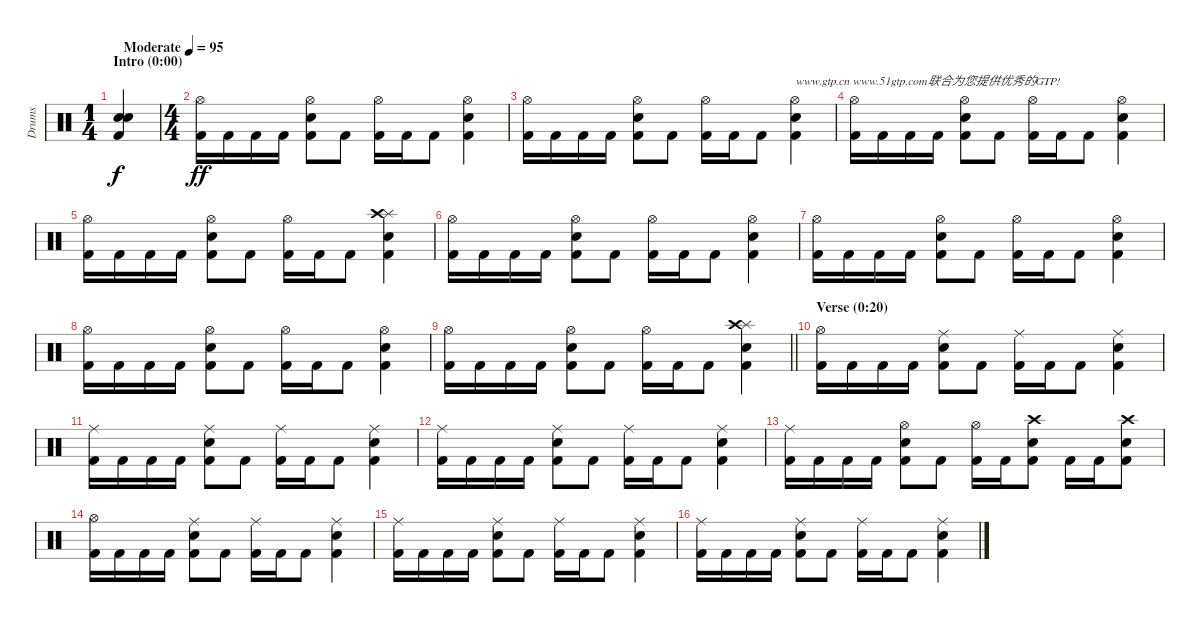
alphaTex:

\track ("Drums" "Drums") {instrument percussion}
\staff {score}
\articulation defaults
\ts (1 4)
\section ("" "Intro (0:00)")
\tempo (95 "Moderate")
\clef neutral
\ks c
("Electric Snare (hit)" "Snare (hit) 2" "Kick (hit) 2").4{dy f} |
\ts (4 4)
("Hi-Hat (open)" "Kick (hit) 2").16{dy ff} "Kick (hit) 2".16 "Kick (hit) 2".16 "Kick (hit) 2".16 ("Hi-Hat (open)" "Snare (hit) 2" "Kick (hit) 2").8 "Kick (hit) 2".8 ("Hi-Hat (open)" "Kick (hit) 2").16 "Kick (hit) 2".16 "Kick (hit) 2".8 ("Hi-Hat (open)" "Snare (hit) 2" "Kick (hit) 2").4 |
("Hi-Hat (open)" "Kick (hit) 2").16 "Kick (hit) 2".16 "Kick (hit) 2".16 "Kick (hit) 2".16 ("Hi-Hat (open)" "Snare (hit) 2" "Kick (hit) 2").8 "Kick (hit) 2".8 ("Hi-Hat (open)" "Kick (hit) 2").16 "Kick (hit) 2".16 "Kick (hit) 2".8 ("Hi-Hat (open)" "Snare (hit) 2" "Kick (hit) 2").4{txt "www.gtp.cn www.51gtp.com联合为您提供优秀的GTP!"} |
("Hi-Hat (open)" "Kick (hit) 2").16 "Kick (hit) 2".16 "Kick (hit) 2".16 "Kick (hit) 2".16 ("Hi-Hat (open)" "Snare (hit) 2" "Kick (hit) 2").8 "Kick (hit) 2".8 ("Hi-Hat (open)" "Kick (hit) 2").16 "Kick (hit) 2".16 "Kick (hit) 2".8 ("Hi-Hat (open)" "Snare (hit) 2" "Kick (hit) 2").4 |
("Hi-Hat (open)" "Kick (hit) 2").16 "Kick (hit) 2".16 "Kick (hit) 2".16 "Kick (hit) 2".16 ("Hi-Hat (open)" "Snare (hit) 2" "Kick (hit) 2").8 "Kick (hit) 2".8 ("Hi-Hat (open)" "Kick (hit) 2").16 "Kick (hit) 2".16 "Kick (hit) 2".8 ("Splash (hit)" "Crash high (hit)" "Snare (hit) 2" "Kick (hit) 2").4 |
("Hi-Hat (open)" "Kick (hit) 2").16 "Kick (hit) 2".16 "Kick (hit) 2".16 "Kick (hit) 2".16 ("Hi-Hat (open)" "Snare (hit) 2" "Kick (hit) 2").8 "Kick (hit) 2".8 ("Hi-Hat (open)" "Kick (hit) 2").16 "Kick (hit) 2".16 "Kick (hit) 2".8 ("Hi-Hat (open)" "Snare (hit) 2" "Kick (hit) 2").4 |
("Hi-Hat (open)" "Kick (hit) 2").16 "Kick (hit) 2".16 "Kick (hit) 2".16 "Kick (hit) 2".16 ("Hi-Hat (open)" "Snare (hit) 2" "Kick (hit) 2").8 "Kick (hit) 2".8 ("Hi-Hat (open)" "Kick (hit) 2").16 "Kick (hit) 2".16 "Kick (hit) 2".8 ("Hi-Hat (open)" "Snare (hit) 2" "Kick (hit) 2").4 |
("Hi-Hat (open)" "Kick (hit) 2").16 "Kick (hit) 2".16 "Kick (hit) 2".16 "Kick (hit) 2".16 ("Hi-Hat (open)" "Snare (hit) 2" "Kick (hit) 2").8 "Kick (hit) 2".8 ("Hi-Hat (open)" "Kick (hit) 2").16 "Kick (hit) 2".16 "Kick (hit) 2".8 ("Hi-Hat (open)" "Snare (hit) 2" "Kick (hit) 2").4 |
\barLineRight lightlight
("Hi-Hat (open)" "Kick (hit) 2").16 "Kick (hit) 2".16 "Kick (hit) 2".16 "Kick (hit) 2".16 ("Hi-Hat (open)" "Snare (hit) 2" "Kick (hit) 2").8 "Kick (hit) 2".8 ("Hi-Hat (open)" "Kick (hit) 2").16 "Kick (hit) 2".16 "Kick (hit) 2".8 ("Splash (hit)" "Crash high (hit)" "Snare (hit) 2" "Kick (hit) 2").4 |
\section ("" "Verse (0:20)")
("Hi-Hat (open)" "Kick (hit) 2").16 "Kick (hit) 2".16 "Kick (hit) 2".16 "Kick (hit) 2".16 ("Ride (middle)" "Snare (hit) 2" "Kick (hit) 2").8 "Kick (hit) 2".8 ("Ride (middle)" "Kick (hit) 2").16 "Kick (hit) 2".16 "Kick (hit) 2".8 ("Ride (middle)" "Snare (hit) 2" "Kick (hit) 2").4 |
("Ride (middle)" "Kick (hit) 2").16 "Kick (hit) 2".16 "Kick (hit) 2".16 "Kick (hit) 2".16 ("Ride (middle)" "Snare (hit) 2" "Kick (hit) 2").8 "Kick (hit) 2".8 ("Ride (middle)" "Kick (hit) 2").16 "Kick (hit) 2".16 "Kick (hit) 2".8 ("Ride (middle)" "Snare (hit) 2" "Kick (hit) 2").4 |
("Ride (middle)" "Kick (hit) 2").16 "Kick (hit) 2".16 "Kick (hit) 2".16 "Kick (hit) 2".16 ("Ride (middle)" "Snare (hit) 2" "Kick (hit) 2").8 "Kick (hit) 2".8 ("Ride (middle)" "Kick (hit) 2").16 "Kick (hit) 2".16 "Kick (hit) 2".8 ("Ride (middle)" "Snare (hit) 2" "Kick (hit) 2").4 |
("Ride (middle)" "Kick (hit) 2").16 "Kick (hit) 2".16 "Kick (hit) 2".16 "Kick (hit) 2".16 ("Hi-Hat (open)" "Snare (hit) 2" "Kick (hit) 2").8 "Kick (hit) 2".8 ("Hi-Hat (open)" "Kick (hit) 2").16 "Kick (hit) 2".16 ("Crash high (hit)" "Snare (hit) 2" "Kick (hit) 2").8 "Kick (hit) 2".16 "Kick (hit) 2".16 ("Crash high (hit)" "Snare (hit) 2" "Kick (hit) 2").8 |
("Hi-Hat (open)" "Kick (hit) 2").16 "Kick (hit) 2".16 "Kick (hit) 2".16 "Kick (hit) 2".16 ("Ride (middle)" "Snare (hit) 2" "Kick (hit) 2").8 "Kick (hit) 2".8 ("Ride (middle)" "Kick (hit) 2").16 "Kick (hit) 2".16 "Kick (hit) 2".8 ("Ride (middle)" "Snare (hit) 2" "Kick (hit) 2").4 |
("Ride (middle)" "Kick (hit) 2").16 "Kick (hit) 2".16 "Kick (hit) 2".16 "Kick (hit) 2".16 ("Ride (middle)" "Snare (hit) 2" "Kick (hit) 2").8 "Kick (hit) 2".8 ("Ride (middle)" "Kick (hit) 2").16 "Kick (hit) 2".16 "Kick (hit) 2".8 ("Ride (middle)" "Snare (hit) 2" "Kick (hit) 2").4 |
("Ride (middle)" "Kick (hit) 2").16 "Kick (hit) 2".16 "Kick (hit) 2".16 "Kick (hit) 2".16 ("Ride (middle)" "Snare (hit) 2" "Kick (hit) 2").8 "Kick (hit) 2".8 ("Ride (middle)" "Kick (hit) 2").16 "Kick (hit) 2".16 "Kick (hit) 2".8 ("Ride (middle)" "Snare (hit) 2" "Kick (hit) 2").4
